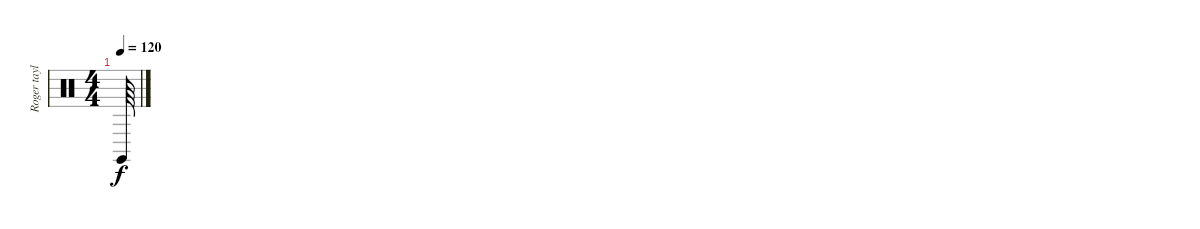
\track ("Roger taylor" "Roger tayl") {instrument percussion}
\staff {score}
\articulation defaults
\ts (4 4)
\tempo 120
\clef neutral
\ks c "Claves (hit)".64{dy f}
